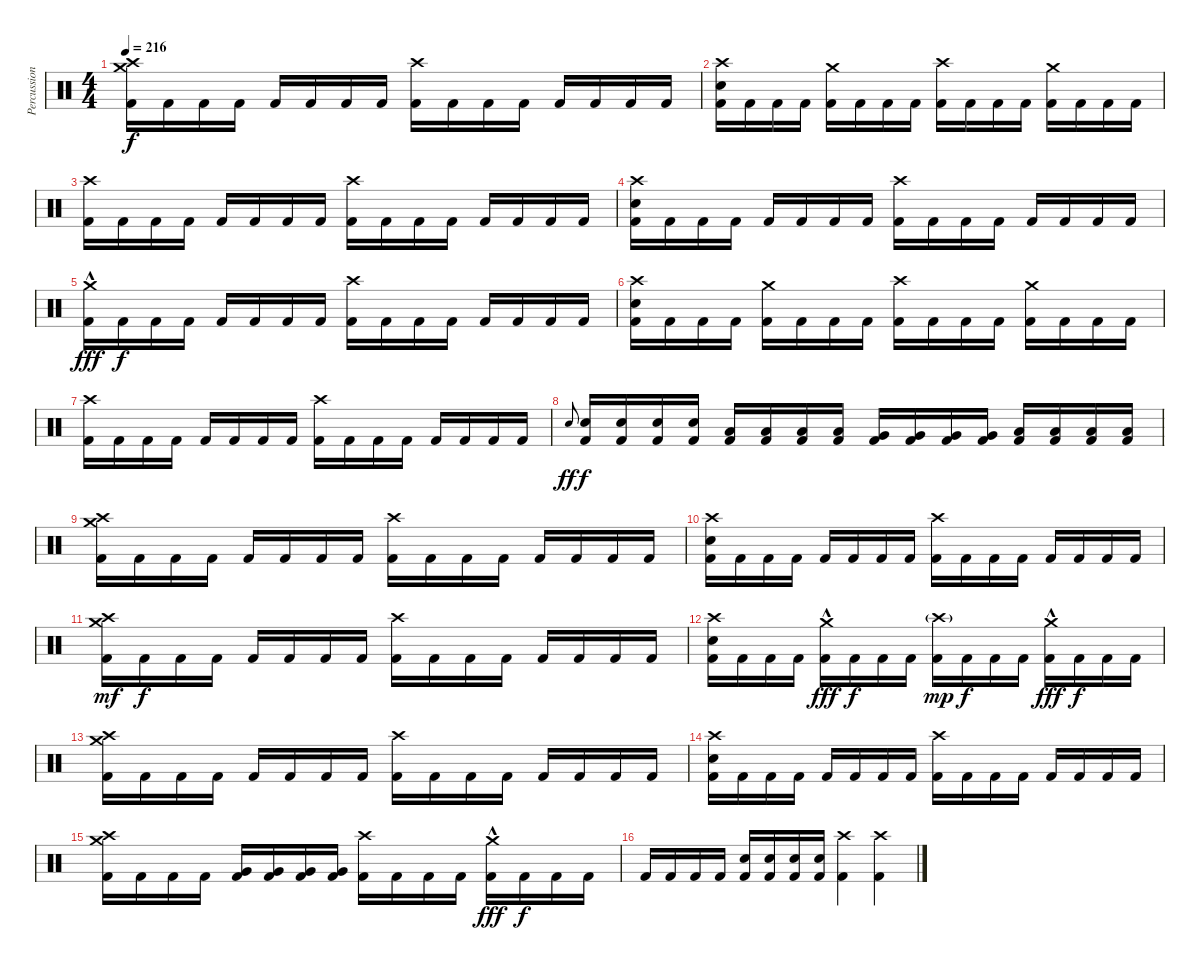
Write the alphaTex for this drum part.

\track ("Percussions" "Percussion") {instrument percussion}
\staff {score}
\articulation defaults
\ts (4 4)
\tempo 216
\clef neutral
\ks c
("Crash high (hit)" "Crash medium (hit)" "Kick (hit) 2").16{dy f} "Kick (hit) 2".16 "Kick (hit) 2".16 "Kick (hit) 2".16 "Kick (hit) 2".16 "Kick (hit) 2".16 "Kick (hit) 2".16 "Kick (hit) 2".16 ("Crash high (hit)" "Kick (hit) 2").16 "Kick (hit) 2".16 "Kick (hit) 2".16 "Kick (hit) 2".16 "Kick (hit) 2".16 "Kick (hit) 2".16 "Kick (hit) 2".16 "Kick (hit) 2".16 |
("Crash high (hit)" "Electric Snare (hit)" "Kick (hit) 2").16 "Kick (hit) 2".16 "Kick (hit) 2".16 "Kick (hit) 2".16 ("Crash medium (hit)" "Kick (hit) 2").16 "Kick (hit) 2".16 "Kick (hit) 2".16 "Kick (hit) 2".16 ("Crash high (hit)" "Kick (hit) 2").16 "Kick (hit) 2".16 "Kick (hit) 2".16 "Kick (hit) 2".16 ("Crash medium (hit)" "Kick (hit) 2").16 "Kick (hit) 2".16 "Kick (hit) 2".16 "Kick (hit) 2".16 |
("Crash high (hit)" "Kick (hit) 2").16 "Kick (hit) 2".16 "Kick (hit) 2".16 "Kick (hit) 2".16 "Kick (hit) 2".16 "Kick (hit) 2".16 "Kick (hit) 2".16 "Kick (hit) 2".16 ("Crash high (hit)" "Kick (hit) 2").16 "Kick (hit) 2".16 "Kick (hit) 2".16 "Kick (hit) 2".16 "Kick (hit) 2".16 "Kick (hit) 2".16 "Kick (hit) 2".16 "Kick (hit) 2".16 |
("Crash high (hit)" "Electric Snare (hit)" "Kick (hit) 2").16 "Kick (hit) 2".16 "Kick (hit) 2".16 "Kick (hit) 2".16 "Kick (hit) 2".16 "Kick (hit) 2".16 "Kick (hit) 2".16 "Kick (hit) 2".16 ("Crash high (hit)" "Kick (hit) 2").16 "Kick (hit) 2".16 "Kick (hit) 2".16 "Kick (hit) 2".16 "Kick (hit) 2".16 "Kick (hit) 2".16 "Kick (hit) 2".16 "Kick (hit) 2".16 |
("Crash medium (hit)"{hac} "Kick (hit) 2").16{dy fff} "Kick (hit) 2".16{dy f} "Kick (hit) 2".16 "Kick (hit) 2".16 "Kick (hit) 2".16 "Kick (hit) 2".16 "Kick (hit) 2".16 "Kick (hit) 2".16 ("Crash high (hit)" "Kick (hit) 2").16 "Kick (hit) 2".16 "Kick (hit) 2".16 "Kick (hit) 2".16 "Kick (hit) 2".16 "Kick (hit) 2".16 "Kick (hit) 2".16 "Kick (hit) 2".16 |
("Crash high (hit)" "Electric Snare (hit)" "Kick (hit) 2").16 "Kick (hit) 2".16 "Kick (hit) 2".16 "Kick (hit) 2".16 ("Crash medium (hit)" "Kick (hit) 2").16 "Kick (hit) 2".16 "Kick (hit) 2".16 "Kick (hit) 2".16 ("Crash high (hit)" "Kick (hit) 2").16 "Kick (hit) 2".16 "Kick (hit) 2".16 "Kick (hit) 2".16 ("Crash medium (hit)" "Kick (hit) 2").16 "Kick (hit) 2".16 "Kick (hit) 2".16 "Kick (hit) 2".16 |
("Crash high (hit)" "Kick (hit) 2").16 "Kick (hit) 2".16 "Kick (hit) 2".16 "Kick (hit) 2".16 "Kick (hit) 2".16 "Kick (hit) 2".16 "Kick (hit) 2".16 "Kick (hit) 2".16 ("Crash high (hit)" "Kick (hit) 2").16 "Kick (hit) 2".16 "Kick (hit) 2".16 "Kick (hit) 2".16 "Kick (hit) 2".16 "Kick (hit) 2".16 "Kick (hit) 2".16 "Kick (hit) 2".16 |
"Electric Snare (hit)".8{gr onbeat dy ff} ("Electric Snare (hit)" "Kick (hit) 2").16{dy f} ("Electric Snare (hit)" "Kick (hit) 2").16 ("Electric Snare (hit)" "Kick (hit) 2").16 ("Electric Snare (hit)" "Kick (hit) 2").16 ("Low Floor Tom (hit)" "Kick (hit) 2").16 ("Low Floor Tom (hit)" "Kick (hit) 2").16 ("Low Floor Tom (hit)" "Kick (hit) 2").16 ("Low Floor Tom (hit)" "Kick (hit) 2").16 ("Very Low Tom (hit)" "Kick (hit) 2").16 ("Very Low Tom (hit)" "Kick (hit) 2").16 ("Very Low Tom (hit)" "Kick (hit) 2").16 ("Very Low Tom (hit)" "Kick (hit) 2").16 ("Low Tom (hit)" "Kick (hit) 2").16 ("Low Tom (hit)" "Kick (hit) 2").16 ("Low Tom (hit)" "Kick (hit) 2").16 ("Low Tom (hit)" "Kick (hit) 2").16 |
("Crash high (hit)" "Crash medium (hit)" "Kick (hit) 2").16 "Kick (hit) 2".16 "Kick (hit) 2".16 "Kick (hit) 2".16 "Kick (hit) 2".16 "Kick (hit) 2".16 "Kick (hit) 2".16 "Kick (hit) 2".16 ("Crash high (hit)" "Kick (hit) 2").16 "Kick (hit) 2".16 "Kick (hit) 2".16 "Kick (hit) 2".16 "Kick (hit) 2".16 "Kick (hit) 2".16 "Kick (hit) 2".16 "Kick (hit) 2".16 |
("Crash high (hit)" "Electric Snare (hit)" "Kick (hit) 2").16 "Kick (hit) 2".16 "Kick (hit) 2".16 "Kick (hit) 2".16 "Kick (hit) 2".16 "Kick (hit) 2".16 "Kick (hit) 2".16 "Kick (hit) 2".16 ("Crash high (hit)" "Kick (hit) 2").16 "Kick (hit) 2".16 "Kick (hit) 2".16 "Kick (hit) 2".16 "Kick (hit) 2".16 "Kick (hit) 2".16 "Kick (hit) 2".16 "Kick (hit) 2".16 |
("Crash medium (hit)" "Crash high (hit)" "Kick (hit) 2").16{dy mf} "Kick (hit) 2".16{dy f} "Kick (hit) 2".16 "Kick (hit) 2".16 "Kick (hit) 2".16 "Kick (hit) 2".16 "Kick (hit) 2".16 "Kick (hit) 2".16 ("Crash high (hit)" "Kick (hit) 2").16 "Kick (hit) 2".16 "Kick (hit) 2".16 "Kick (hit) 2".16 "Kick (hit) 2".16 "Kick (hit) 2".16 "Kick (hit) 2".16 "Kick (hit) 2".16 |
("Crash high (hit)" "Electric Snare (hit)" "Kick (hit) 2").16 "Kick (hit) 2".16 "Kick (hit) 2".16 "Kick (hit) 2".16 ("Crash medium (hit)"{hac} "Kick (hit) 2").16{dy fff} "Kick (hit) 2".16{dy f} "Kick (hit) 2".16 "Kick (hit) 2".16 ("Crash high (hit)"{g} "Kick (hit) 2").16{dy mp} "Kick (hit) 2".16{dy f} "Kick (hit) 2".16 "Kick (hit) 2".16 ("Crash medium (hit)"{hac} "Kick (hit) 2").16{dy fff} "Kick (hit) 2".16{dy f} "Kick (hit) 2".16 "Kick (hit) 2".16 |
("Crash high (hit)" "Crash medium (hit)" "Kick (hit) 2").16 "Kick (hit) 2".16 "Kick (hit) 2".16 "Kick (hit) 2".16 "Kick (hit) 2".16 "Kick (hit) 2".16 "Kick (hit) 2".16 "Kick (hit) 2".16 ("Crash high (hit)" "Kick (hit) 2").16 "Kick (hit) 2".16 "Kick (hit) 2".16 "Kick (hit) 2".16 "Kick (hit) 2".16 "Kick (hit) 2".16 "Kick (hit) 2".16 "Kick (hit) 2".16 |
("Crash high (hit)" "Electric Snare (hit)" "Kick (hit) 2").16 "Kick (hit) 2".16 "Kick (hit) 2".16 "Kick (hit) 2".16 "Kick (hit) 2".16 "Kick (hit) 2".16 "Kick (hit) 2".16 "Kick (hit) 2".16 ("Crash high (hit)" "Kick (hit) 2").16 "Kick (hit) 2".16 "Kick (hit) 2".16 "Kick (hit) 2".16 "Kick (hit) 2".16 "Kick (hit) 2".16 "Kick (hit) 2".16 "Kick (hit) 2".16 |
("Crash high (hit)" "Crash medium (hit)" "Kick (hit) 2").16 "Kick (hit) 2".16 "Kick (hit) 2".16 "Kick (hit) 2".16 ("Very Low Tom (hit)" "Kick (hit) 2").16 ("Very Low Tom (hit)" "Kick (hit) 2").16 ("Very Low Tom (hit)" "Kick (hit) 2").16 ("Very Low Tom (hit)" "Kick (hit) 2").16 ("Crash high (hit)" "Kick (hit) 2").16 "Kick (hit) 2".16 "Kick (hit) 2".16 "Kick (hit) 2".16 ("Crash medium (hit)"{hac} "Kick (hit) 2").16{dy fff} "Kick (hit) 2".16{dy f} "Kick (hit) 2".16 "Kick (hit) 2".16 |
"Kick (hit) 2".16 "Kick (hit) 2".16 "Kick (hit) 2".16 "Kick (hit) 2".16 ("Electric Snare (hit)" "Kick (hit) 2").16 ("Electric Snare (hit)" "Kick (hit) 2").16 ("Electric Snare (hit)" "Kick (hit) 2").16 ("Electric Snare (hit)" "Kick (hit) 2").16 ("Crash high (hit)" "Kick (hit) 2").4 ("Crash high (hit)" "Kick (hit) 2").4
